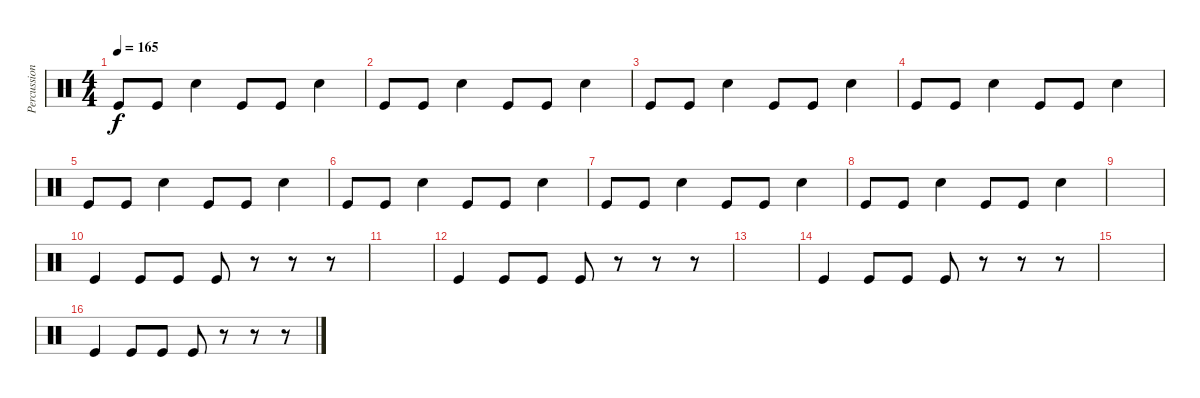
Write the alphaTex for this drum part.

\track ("Percussion" "Percussion") {instrument percussion}
\staff {score}
\articulation defaults
\ts (4 4)
\tempo 165
\clef neutral
\ks c "Kick (hit)".8{dy f} "Kick (hit)".8 "Snare (hit) 2".4 "Kick (hit)".8 "Kick (hit)".8 "Snare (hit) 2".4
|
"Kick (hit)".8 "Kick (hit)".8 "Snare (hit) 2".4 "Kick (hit)".8 "Kick (hit)".8 "Snare (hit) 2".4 |
"Kick (hit)".8 "Kick (hit)".8 "Snare (hit) 2".4 "Kick (hit)".8 "Kick (hit)".8 "Snare (hit) 2".4 |
"Kick (hit)".8 "Kick (hit)".8 "Snare (hit) 2".4 "Kick (hit)".8 "Kick (hit)".8 "Snare (hit) 2".4 |
"Kick (hit)".8 "Kick (hit)".8 "Snare (hit) 2".4 "Kick (hit)".8 "Kick (hit)".8 "Snare (hit) 2".4 |
"Kick (hit)".8 "Kick (hit)".8 "Snare (hit) 2".4 "Kick (hit)".8 "Kick (hit)".8 "Snare (hit) 2".4 |
"Kick (hit)".8 "Kick (hit)".8 "Snare (hit) 2".4 "Kick (hit)".8 "Kick (hit)".8 "Snare (hit) 2".4 |
"Kick (hit)".8 "Kick (hit)".8 "Snare (hit) 2".4 "Kick (hit)".8 "Kick (hit)".8 "Snare (hit) 2".4 |
|
"Kick (hit)".4 "Kick (hit)".8 "Kick (hit)".8 "Kick (hit)".8 r.8 r.8 r.8 |
|
"Kick (hit)".4 "Kick (hit)".8 "Kick (hit)".8 "Kick (hit)".8 r.8 r.8 r.8 |
|
"Kick (hit)".4 "Kick (hit)".8 "Kick (hit)".8 "Kick (hit)".8 r.8 r.8 r.8 |
|
"Kick (hit)".4 "Kick (hit)".8 "Kick (hit)".8 "Kick (hit)".8 r.8 r.8 r.8
